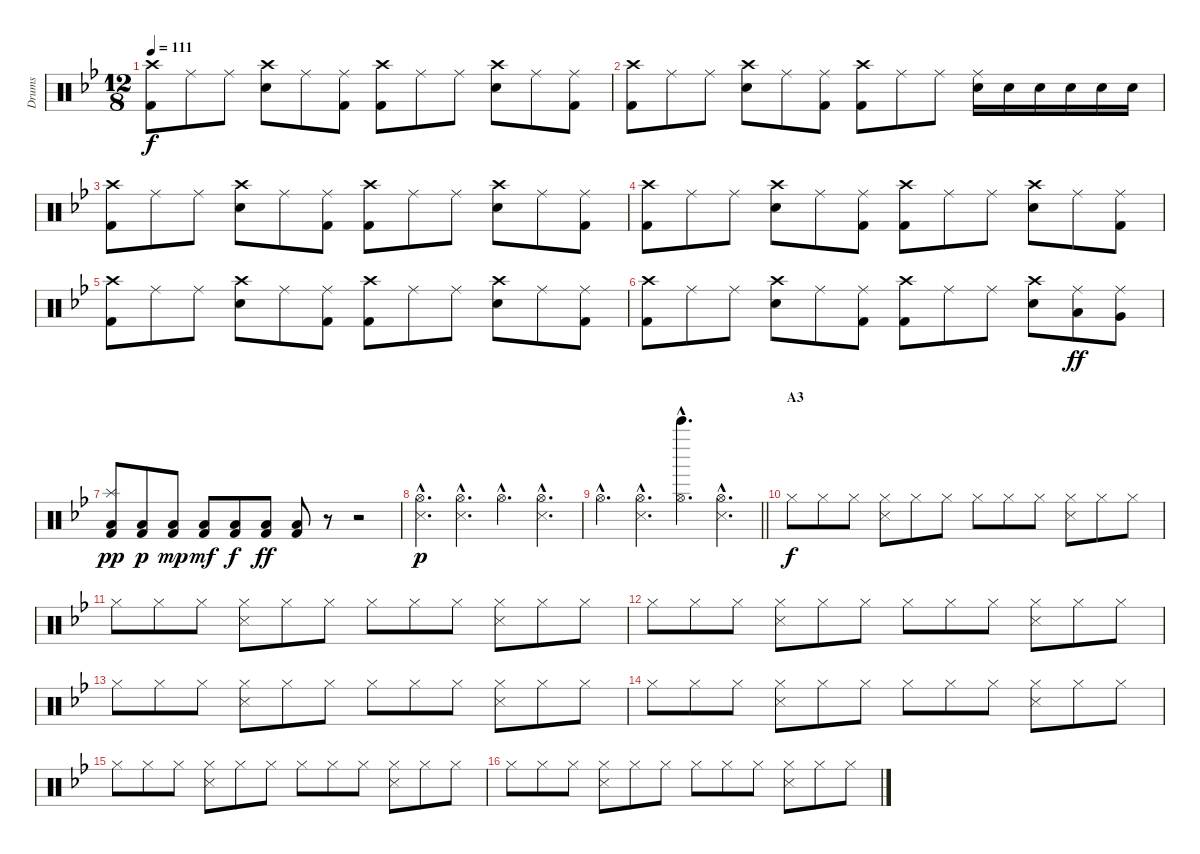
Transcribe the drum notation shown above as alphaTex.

\track ("Drums" "Drums") {instrument percussion}
\staff {score}
\articulation defaults
\ts (12 8)
\tempo 111
\clef neutral
\ks gminor
("Crash high (hit)" "Kick (hit) 2").8{dy f} "Ride (middle)".8 "Ride (middle)".8 ("Crash high (hit)" "Electric Snare (hit)").8 "Ride (middle)".8 ("Ride (middle)" "Kick (hit) 2").8 ("Crash high (hit)" "Kick (hit) 2").8 "Ride (middle)".8 "Ride (middle)".8 ("Crash high (hit)" "Electric Snare (hit)").8 "Ride (middle)".8 ("Ride (middle)" "Kick (hit) 2").8 |
("Crash high (hit)" "Kick (hit) 2").8 "Ride (middle)".8 "Ride (middle)".8 ("Crash high (hit)" "Electric Snare (hit)").8 "Ride (middle)".8 ("Ride (middle)" "Kick (hit) 2").8 ("Crash high (hit)" "Kick (hit) 2").8 "Ride (middle)".8 "Ride (middle)".8 ("Ride (middle)" "Electric Snare (hit)").16 "Electric Snare (hit)".16 "Electric Snare (hit)".16 "Electric Snare (hit)".16 "Electric Snare (hit)".16 "Electric Snare (hit)".16 |
("Crash high (hit)" "Kick (hit) 2").8 "Ride (middle)".8 "Ride (middle)".8 ("Crash high (hit)" "Electric Snare (hit)").8 "Ride (middle)".8 ("Ride (middle)" "Kick (hit) 2").8 ("Crash high (hit)" "Kick (hit) 2").8 "Ride (middle)".8 "Ride (middle)".8 ("Crash high (hit)" "Electric Snare (hit)").8 "Ride (middle)".8 ("Ride (middle)" "Kick (hit) 2").8 |
("Crash high (hit)" "Kick (hit) 2").8 "Ride (middle)".8 "Ride (middle)".8 ("Crash high (hit)" "Electric Snare (hit)").8 "Ride (middle)".8 ("Ride (middle)" "Kick (hit) 2").8 ("Crash high (hit)" "Kick (hit) 2").8 "Ride (middle)".8 "Ride (middle)".8 ("Crash high (hit)" "Electric Snare (hit)").8 "Ride (middle)".8 ("Ride (middle)" "Kick (hit) 2").8 |
("Crash high (hit)" "Kick (hit) 2").8 "Ride (middle)".8 "Ride (middle)".8 ("Crash high (hit)" "Electric Snare (hit)").8 "Ride (middle)".8 ("Ride (middle)" "Kick (hit) 2").8 ("Crash high (hit)" "Kick (hit) 2").8 "Ride (middle)".8 "Ride (middle)".8 ("Crash high (hit)" "Electric Snare (hit)").8 "Ride (middle)".8 ("Ride (middle)" "Kick (hit) 2").8 |
("Crash high (hit)" "Kick (hit) 2").8 "Ride (middle)".8 "Ride (middle)".8 ("Crash high (hit)" "Electric Snare (hit)").8 "Ride (middle)".8 ("Ride (middle)" "Kick (hit) 2").8 ("Crash high (hit)" "Kick (hit) 2").8 "Ride (middle)".8 "Ride (middle)".8 ("Crash high (hit)" "Electric Snare (hit)").8 ("Ride (middle)" "Low Tom (hit)").8{dy ff} ("Ride (middle)" "Very Low Tom (hit)").8 |
("Splash (hit)" "Low Floor Tom (hit)" "Kick (hit) 2").8{dy pp} ("Low Floor Tom (hit)" "Kick (hit) 2").8{dy p} ("Low Floor Tom (hit)" "Kick (hit) 2").8{dy mp} ("Low Floor Tom (hit)" "Kick (hit) 2").8{dy mf} ("Low Floor Tom (hit)" "Kick (hit) 2").8{dy f} ("Low Floor Tom (hit)" "Kick (hit) 2").8{dy ff} ("Low Floor Tom (hit)" "Kick (hit) 2").8 r.8 r.2 |
("Hi-Hat (open)"{hac} "Snare (side stick) 3"{hac}).4{d dy p volume 6} ("Hi-Hat (open)"{hac} "Snare (side stick) 3"{hac}).4{d} "Hi-Hat (open)"{hac}.4{d} ("Hi-Hat (open)"{hac} "Snare (side stick) 3"{hac}).4{d} |
\barLineRight lightlight "Hi-Hat (open)"{hac}.4{d}
("Hi-Hat (open)"{hac} "Snare (side stick) 3"{hac}).4{d} ("Hi-Hat (open)"{hac} "Bell Tree (hit)"{hac}).4{d} ("Hi-Hat (open)"{hac} "Snare (side stick) 3"{hac}).4{d} |
\section ("" "A3")
"Hi-Hat (closed)".8{dy f} "Hi-Hat (closed)".8 "Hi-Hat (closed)".8 ("Hi-Hat (closed)" "Snare (side stick) 3").8 "Hi-Hat (closed)".8 "Hi-Hat (closed)".8 "Hi-Hat (closed)".8 "Hi-Hat (closed)".8 "Hi-Hat (closed)".8 ("Hi-Hat (closed)" "Snare (side stick) 3").8 "Hi-Hat (closed)".8 "Hi-Hat (closed)".8 |
"Hi-Hat (closed)".8 "Hi-Hat (closed)".8 "Hi-Hat (closed)".8 ("Hi-Hat (closed)" "Snare (side stick) 3").8 "Hi-Hat (closed)".8 "Hi-Hat (closed)".8 "Hi-Hat (closed)".8 "Hi-Hat (closed)".8 "Hi-Hat (closed)".8 ("Hi-Hat (closed)" "Snare (side stick) 3").8 "Hi-Hat (closed)".8 "Hi-Hat (closed)".8 |
"Hi-Hat (closed)".8 "Hi-Hat (closed)".8 "Hi-Hat (closed)".8 ("Hi-Hat (closed)" "Snare (side stick) 3").8 "Hi-Hat (closed)".8 "Hi-Hat (closed)".8 "Hi-Hat (closed)".8 "Hi-Hat (closed)".8 "Hi-Hat (closed)".8 ("Hi-Hat (closed)" "Snare (side stick) 3").8 "Hi-Hat (closed)".8 "Hi-Hat (closed)".8 |
"Hi-Hat (closed)".8 "Hi-Hat (closed)".8 "Hi-Hat (closed)".8 ("Hi-Hat (closed)" "Snare (side stick) 3").8 "Hi-Hat (closed)".8 "Hi-Hat (closed)".8 "Hi-Hat (closed)".8 "Hi-Hat (closed)".8 "Hi-Hat (closed)".8 ("Hi-Hat (closed)" "Snare (side stick) 3").8 "Hi-Hat (closed)".8 "Hi-Hat (closed)".8 |
"Hi-Hat (closed)".8 "Hi-Hat (closed)".8 "Hi-Hat (closed)".8 ("Hi-Hat (closed)" "Snare (side stick) 3").8 "Hi-Hat (closed)".8 "Hi-Hat (closed)".8 "Hi-Hat (closed)".8 "Hi-Hat (closed)".8 "Hi-Hat (closed)".8 ("Hi-Hat (closed)" "Snare (side stick) 3").8 "Hi-Hat (closed)".8 "Hi-Hat (closed)".8 |
"Hi-Hat (closed)".8 "Hi-Hat (closed)".8 "Hi-Hat (closed)".8 ("Hi-Hat (closed)" "Snare (side stick) 3").8 "Hi-Hat (closed)".8 "Hi-Hat (closed)".8 "Hi-Hat (closed)".8 "Hi-Hat (closed)".8 "Hi-Hat (closed)".8 ("Hi-Hat (closed)" "Snare (side stick) 3").8 "Hi-Hat (closed)".8 "Hi-Hat (closed)".8 |
"Hi-Hat (closed)".8 "Hi-Hat (closed)".8 "Hi-Hat (closed)".8 ("Hi-Hat (closed)" "Snare (side stick) 3").8 "Hi-Hat (closed)".8 "Hi-Hat (closed)".8 "Hi-Hat (closed)".8 "Hi-Hat (closed)".8 "Hi-Hat (closed)".8 ("Hi-Hat (closed)" "Snare (side stick) 3").8 "Hi-Hat (closed)".8 "Hi-Hat (closed)".8
